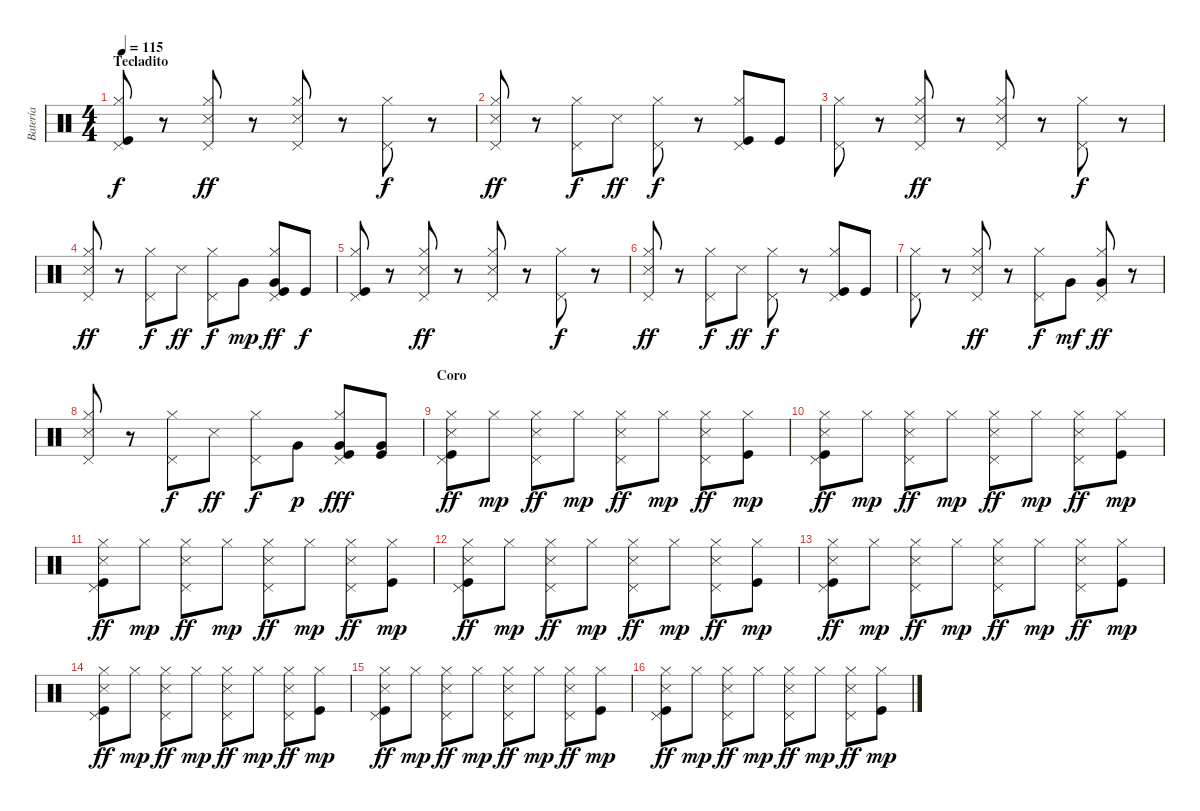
\track ("Batería" "Batería") {instrument percussion}
\staff {score}
\articulation defaults
\ts (4 4)
\section ("" "Tecladito")
\tempo 115
\clef neutral
\ks c
("Pedal Hi-Hat (hit)" "Hi-Hat (closed)" "Kick (hit)").8{dy f} r.8 ("Pedal Hi-Hat (hit)" "Hi-Hat (closed)" "Snare (side stick) 3").8{dy ff} r.8 ("Pedal Hi-Hat (hit)" "Hi-Hat (closed)" "Snare (side stick) 3").8 r.8 ("Pedal Hi-Hat (hit)" "Hi-Hat (closed)").8{dy f} r.8 |
("Pedal Hi-Hat (hit)" "Hi-Hat (closed)" "Snare (side stick) 3").8{dy ff} r.8 ("Pedal Hi-Hat (hit)" "Hi-Hat (closed)").8{dy f} "Snare (side stick) 3".8{dy ff} ("Pedal Hi-Hat (hit)" "Hi-Hat (closed)").8{dy f} r.8 ("Pedal Hi-Hat (hit)" "Hi-Hat (closed)" "Kick (hit)").8 "Kick (hit)".8 |
("Pedal Hi-Hat (hit)" "Hi-Hat (closed)").8 r.8 ("Pedal Hi-Hat (hit)" "Hi-Hat (closed)" "Snare (side stick) 3").8{dy ff} r.8 ("Pedal Hi-Hat (hit)" "Hi-Hat (closed)" "Snare (side stick) 3").8 r.8 ("Pedal Hi-Hat (hit)" "Hi-Hat (closed)").8{dy f} r.8 |
("Pedal Hi-Hat (hit)" "Hi-Hat (closed)" "Snare (side stick) 3").8{dy ff} r.8 ("Pedal Hi-Hat (hit)" "Hi-Hat (closed)").8{dy f} "Snare (side stick) 3".8{dy ff} ("Pedal Hi-Hat (hit)" "Hi-Hat (closed)").8{dy f} "Very Low Tom (hit)".8{dy mp} ("Pedal Hi-Hat (hit)" "Hi-Hat (closed)" "Very Low Tom (hit)" "Kick (hit)").8{dy ff} "Kick (hit)".8{dy f} |
("Pedal Hi-Hat (hit)" "Hi-Hat (closed)" "Kick (hit)").8 r.8 ("Pedal Hi-Hat (hit)" "Hi-Hat (closed)" "Snare (side stick) 3").8{dy ff} r.8 ("Pedal Hi-Hat (hit)" "Hi-Hat (closed)" "Snare (side stick) 3").8 r.8 ("Pedal Hi-Hat (hit)" "Hi-Hat (closed)").8{dy f} r.8 |
("Pedal Hi-Hat (hit)" "Hi-Hat (closed)" "Snare (side stick) 3").8{dy ff} r.8 ("Pedal Hi-Hat (hit)" "Hi-Hat (closed)").8{dy f} "Snare (side stick) 3".8{dy ff} ("Pedal Hi-Hat (hit)" "Hi-Hat (closed)").8{dy f} r.8 ("Pedal Hi-Hat (hit)" "Hi-Hat (closed)" "Kick (hit)").8 "Kick (hit)".8 |
("Pedal Hi-Hat (hit)" "Hi-Hat (closed)").8 r.8 ("Pedal Hi-Hat (hit)" "Hi-Hat (closed)" "Snare (side stick) 3").8{dy ff} r.8 ("Pedal Hi-Hat (hit)" "Hi-Hat (closed)").8{dy f} "Very Low Tom (hit)".8{dy mf} ("Pedal Hi-Hat (hit)" "Hi-Hat (closed)" "Very Low Tom (hit)").8{dy ff} r.8 |
("Pedal Hi-Hat (hit)" "Hi-Hat (closed)" "Snare (side stick) 3").8 r.8 ("Pedal Hi-Hat (hit)" "Hi-Hat (closed)").8{dy f} "Snare (side stick) 3".8{dy ff} ("Pedal Hi-Hat (hit)" "Hi-Hat (closed)").8{dy f} "Very Low Tom (hit)".8{dy p} ("Pedal Hi-Hat (hit)" "Hi-Hat (closed)" "Very Low Tom (hit)" "Kick (hit)").8{dy fff} ("Very Low Tom (hit)" "Kick (hit)").8 |
\section ("" "Coro")
("Pedal Hi-Hat (hit)" "Hi-Hat (closed)" "Snare (side stick) 3" "Kick (hit)").8{dy ff} "Hi-Hat (closed)".8{dy mp} ("Pedal Hi-Hat (hit)" "Hi-Hat (closed)" "Snare (side stick) 3").8{dy ff} "Hi-Hat (closed)".8{dy mp} ("Pedal Hi-Hat (hit)" "Hi-Hat (closed)" "Snare (side stick) 3").8{dy ff} "Hi-Hat (closed)".8{dy mp} ("Pedal Hi-Hat (hit)" "Hi-Hat (closed)" "Snare (side stick) 3").8{dy ff} ("Hi-Hat (closed)" "Kick (hit)").8{dy mp} |
("Pedal Hi-Hat (hit)" "Hi-Hat (closed)" "Snare (side stick) 3" "Kick (hit)").8{dy ff} "Hi-Hat (closed)".8{dy mp} ("Pedal Hi-Hat (hit)" "Hi-Hat (closed)" "Snare (side stick) 3").8{dy ff} "Hi-Hat (closed)".8{dy mp} ("Pedal Hi-Hat (hit)" "Hi-Hat (closed)" "Snare (side stick) 3").8{dy ff} "Hi-Hat (closed)".8{dy mp} ("Pedal Hi-Hat (hit)" "Hi-Hat (closed)" "Snare (side stick) 3").8{dy ff} ("Hi-Hat (closed)" "Kick (hit)").8{dy mp} |
("Pedal Hi-Hat (hit)" "Hi-Hat (closed)" "Snare (side stick) 3" "Kick (hit)").8{dy ff} "Hi-Hat (closed)".8{dy mp} ("Pedal Hi-Hat (hit)" "Hi-Hat (closed)" "Snare (side stick) 3").8{dy ff} "Hi-Hat (closed)".8{dy mp} ("Pedal Hi-Hat (hit)" "Hi-Hat (closed)" "Snare (side stick) 3").8{dy ff} "Hi-Hat (closed)".8{dy mp} ("Pedal Hi-Hat (hit)" "Hi-Hat (closed)" "Snare (side stick) 3").8{dy ff} ("Hi-Hat (closed)" "Kick (hit)").8{dy mp} |
("Pedal Hi-Hat (hit)" "Hi-Hat (closed)" "Snare (side stick) 3" "Kick (hit)").8{dy ff} "Hi-Hat (closed)".8{dy mp} ("Pedal Hi-Hat (hit)" "Hi-Hat (closed)" "Snare (side stick) 3").8{dy ff} "Hi-Hat (closed)".8{dy mp} ("Pedal Hi-Hat (hit)" "Hi-Hat (closed)" "Snare (side stick) 3").8{dy ff} "Hi-Hat (closed)".8{dy mp} ("Pedal Hi-Hat (hit)" "Hi-Hat (closed)" "Snare (side stick) 3").8{dy ff} ("Hi-Hat (closed)" "Kick (hit)").8{dy mp} |
("Pedal Hi-Hat (hit)" "Hi-Hat (closed)" "Snare (side stick) 3" "Kick (hit)").8{dy ff} "Hi-Hat (closed)".8{dy mp} ("Pedal Hi-Hat (hit)" "Hi-Hat (closed)" "Snare (side stick) 3").8{dy ff} "Hi-Hat (closed)".8{dy mp} ("Pedal Hi-Hat (hit)" "Hi-Hat (closed)" "Snare (side stick) 3").8{dy ff} "Hi-Hat (closed)".8{dy mp} ("Pedal Hi-Hat (hit)" "Hi-Hat (closed)" "Snare (side stick) 3").8{dy ff} ("Hi-Hat (closed)" "Kick (hit)").8{dy mp} |
("Pedal Hi-Hat (hit)" "Hi-Hat (closed)" "Snare (side stick) 3" "Kick (hit)").8{dy ff} "Hi-Hat (closed)".8{dy mp} ("Pedal Hi-Hat (hit)" "Hi-Hat (closed)" "Snare (side stick) 3").8{dy ff} "Hi-Hat (closed)".8{dy mp} ("Pedal Hi-Hat (hit)" "Hi-Hat (closed)" "Snare (side stick) 3").8{dy ff} "Hi-Hat (closed)".8{dy mp} ("Pedal Hi-Hat (hit)" "Hi-Hat (closed)" "Snare (side stick) 3").8{dy ff} ("Hi-Hat (closed)" "Kick (hit)").8{dy mp} |
("Pedal Hi-Hat (hit)" "Hi-Hat (closed)" "Snare (side stick) 3" "Kick (hit)").8{dy ff} "Hi-Hat (closed)".8{dy mp} ("Pedal Hi-Hat (hit)" "Hi-Hat (closed)" "Snare (side stick) 3").8{dy ff} "Hi-Hat (closed)".8{dy mp} ("Pedal Hi-Hat (hit)" "Hi-Hat (closed)" "Snare (side stick) 3").8{dy ff} "Hi-Hat (closed)".8{dy mp} ("Pedal Hi-Hat (hit)" "Hi-Hat (closed)" "Snare (side stick) 3").8{dy ff} ("Hi-Hat (closed)" "Kick (hit)").8{dy mp} |
("Pedal Hi-Hat (hit)" "Hi-Hat (closed)" "Snare (side stick) 3" "Kick (hit)").8{dy ff} "Hi-Hat (closed)".8{dy mp} ("Pedal Hi-Hat (hit)" "Hi-Hat (closed)" "Snare (side stick) 3").8{dy ff} "Hi-Hat (closed)".8{dy mp} ("Pedal Hi-Hat (hit)" "Hi-Hat (closed)" "Snare (side stick) 3").8{dy ff} "Hi-Hat (closed)".8{dy mp} ("Pedal Hi-Hat (hit)" "Hi-Hat (closed)" "Snare (side stick) 3").8{dy ff} ("Hi-Hat (closed)" "Kick (hit)").8{dy mp}
